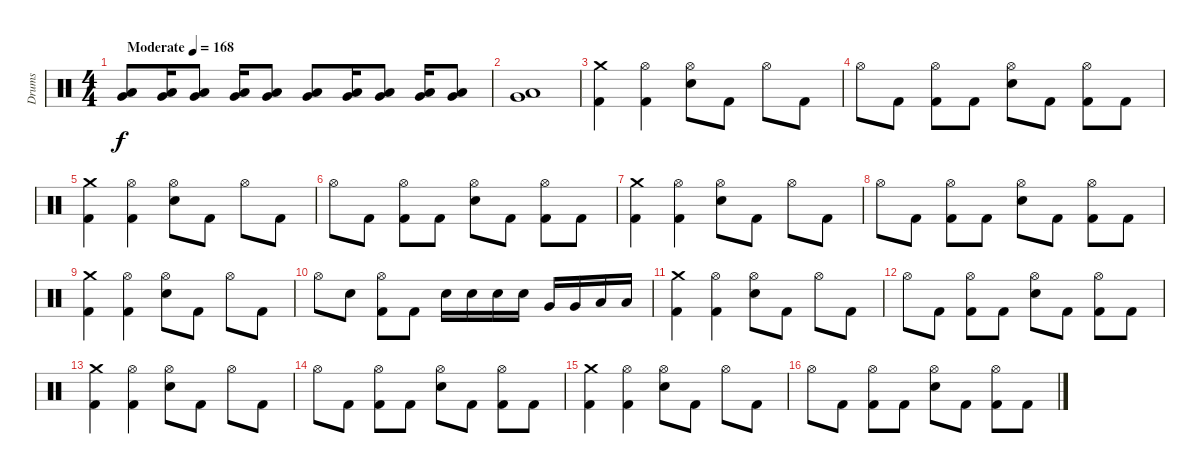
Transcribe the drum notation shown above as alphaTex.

\track ("Drums" "Drums") {instrument percussion}
\staff
\articulation defaults
\ts (4 4)
\tempo (168 "Moderate")
\clef neutral
\ks c
("Low Floor Tom (hit)" "Very Low Tom (hit)").8{bd 60 dy f} ("Low Floor Tom (hit)" "Very Low Tom (hit)").16{bd 60} ("Low Floor Tom (hit)" "Very Low Tom (hit)").8{bu 60} ("Low Floor Tom (hit)" "Very Low Tom (hit)").16{bd 60} ("Low Floor Tom (hit)" "Very Low Tom (hit)").8{bu 60} ("Low Floor Tom (hit)" "Very Low Tom (hit)").8{bd 60} ("Low Floor Tom (hit)" "Very Low Tom (hit)").16{bd 60} ("Low Floor Tom (hit)" "Very Low Tom (hit)").8{bu 60} ("Low Floor Tom (hit)" "Very Low Tom (hit)").16{bd 60} ("Low Floor Tom (hit)" "Very Low Tom (hit)").8{bu 60} |
("Low Floor Tom (hit)" "Very Low Tom (hit)").1{bd 60} |
("Crash medium (hit)" "Kick (hit) 2").4 ("Hi-Hat (open)" "Kick (hit) 2").4 ("Hi-Hat (open)" "Electric Snare (hit)").8 "Kick (hit) 2".8 "Hi-Hat (open)".8 "Kick (hit) 2".8 |
"Hi-Hat (open)".8 "Kick (hit) 2".8 ("Hi-Hat (open)" "Kick (hit) 2").8 "Kick (hit) 2".8 ("Hi-Hat (open)" "Electric Snare (hit)").8 "Kick (hit) 2".8 ("Hi-Hat (open)" "Kick (hit) 2").8 "Kick (hit) 2".8 |
("Crash medium (hit)" "Kick (hit) 2").4 ("Hi-Hat (open)" "Kick (hit) 2").4 ("Hi-Hat (open)" "Electric Snare (hit)").8 "Kick (hit) 2".8 "Hi-Hat (open)".8 "Kick (hit) 2".8 |
"Hi-Hat (open)".8 "Kick (hit) 2".8 ("Hi-Hat (open)" "Kick (hit) 2").8 "Kick (hit) 2".8 ("Hi-Hat (open)" "Electric Snare (hit)").8 "Kick (hit) 2".8 ("Hi-Hat (open)" "Kick (hit) 2").8 "Kick (hit) 2".8 |
("Crash medium (hit)" "Kick (hit) 2").4 ("Hi-Hat (open)" "Kick (hit) 2").4 ("Hi-Hat (open)" "Electric Snare (hit)").8 "Kick (hit) 2".8 "Hi-Hat (open)".8 "Kick (hit) 2".8 |
"Hi-Hat (open)".8 "Kick (hit) 2".8 ("Hi-Hat (open)" "Kick (hit) 2").8 "Kick (hit) 2".8 ("Hi-Hat (open)" "Electric Snare (hit)").8 "Kick (hit) 2".8 ("Hi-Hat (open)" "Kick (hit) 2").8 "Kick (hit) 2".8 |
("Crash medium (hit)" "Kick (hit) 2").4 ("Hi-Hat (open)" "Kick (hit) 2").4 ("Hi-Hat (open)" "Electric Snare (hit)").8 "Kick (hit) 2".8 "Hi-Hat (open)".8 "Kick (hit) 2".8 |
"Hi-Hat (open)".8 "Electric Snare (hit)".8 ("Hi-Hat (open)" "Kick (hit) 2").8 "Kick (hit) 2".8 "Electric Snare (hit)".16 "Electric Snare (hit)".16 "Electric Snare (hit)".16 "Electric Snare (hit)".16 "Very Low Tom (hit)".16 "Very Low Tom (hit)".16 "Low Floor Tom (hit)".16 "Low Floor Tom (hit)".16 |
("Crash medium (hit)" "Kick (hit) 2").4 ("Hi-Hat (open)" "Kick (hit) 2").4 ("Hi-Hat (open)" "Electric Snare (hit)").8 "Kick (hit) 2".8 "Hi-Hat (open)".8 "Kick (hit) 2".8 |
"Hi-Hat (open)".8 "Kick (hit) 2".8 ("Hi-Hat (open)" "Kick (hit) 2").8 "Kick (hit) 2".8 ("Hi-Hat (open)" "Electric Snare (hit)").8 "Kick (hit) 2".8 ("Hi-Hat (open)" "Kick (hit) 2").8 "Kick (hit) 2".8 |
("Crash medium (hit)" "Kick (hit) 2").4 ("Hi-Hat (open)" "Kick (hit) 2").4 ("Hi-Hat (open)" "Electric Snare (hit)").8 "Kick (hit) 2".8 "Hi-Hat (open)".8 "Kick (hit) 2".8 |
"Hi-Hat (open)".8 "Kick (hit) 2".8 ("Hi-Hat (open)" "Kick (hit) 2").8 "Kick (hit) 2".8 ("Hi-Hat (open)" "Electric Snare (hit)").8 "Kick (hit) 2".8 ("Hi-Hat (open)" "Kick (hit) 2").8 "Kick (hit) 2".8 |
("Crash medium (hit)" "Kick (hit) 2").4 ("Hi-Hat (open)" "Kick (hit) 2").4 ("Hi-Hat (open)" "Electric Snare (hit)").8 "Kick (hit) 2".8 "Hi-Hat (open)".8 "Kick (hit) 2".8 |
"Hi-Hat (open)".8 "Kick (hit) 2".8 ("Hi-Hat (open)" "Kick (hit) 2").8 "Kick (hit) 2".8 ("Hi-Hat (open)" "Electric Snare (hit)").8 "Kick (hit) 2".8 ("Hi-Hat (open)" "Kick (hit) 2").8 "Kick (hit) 2".8
